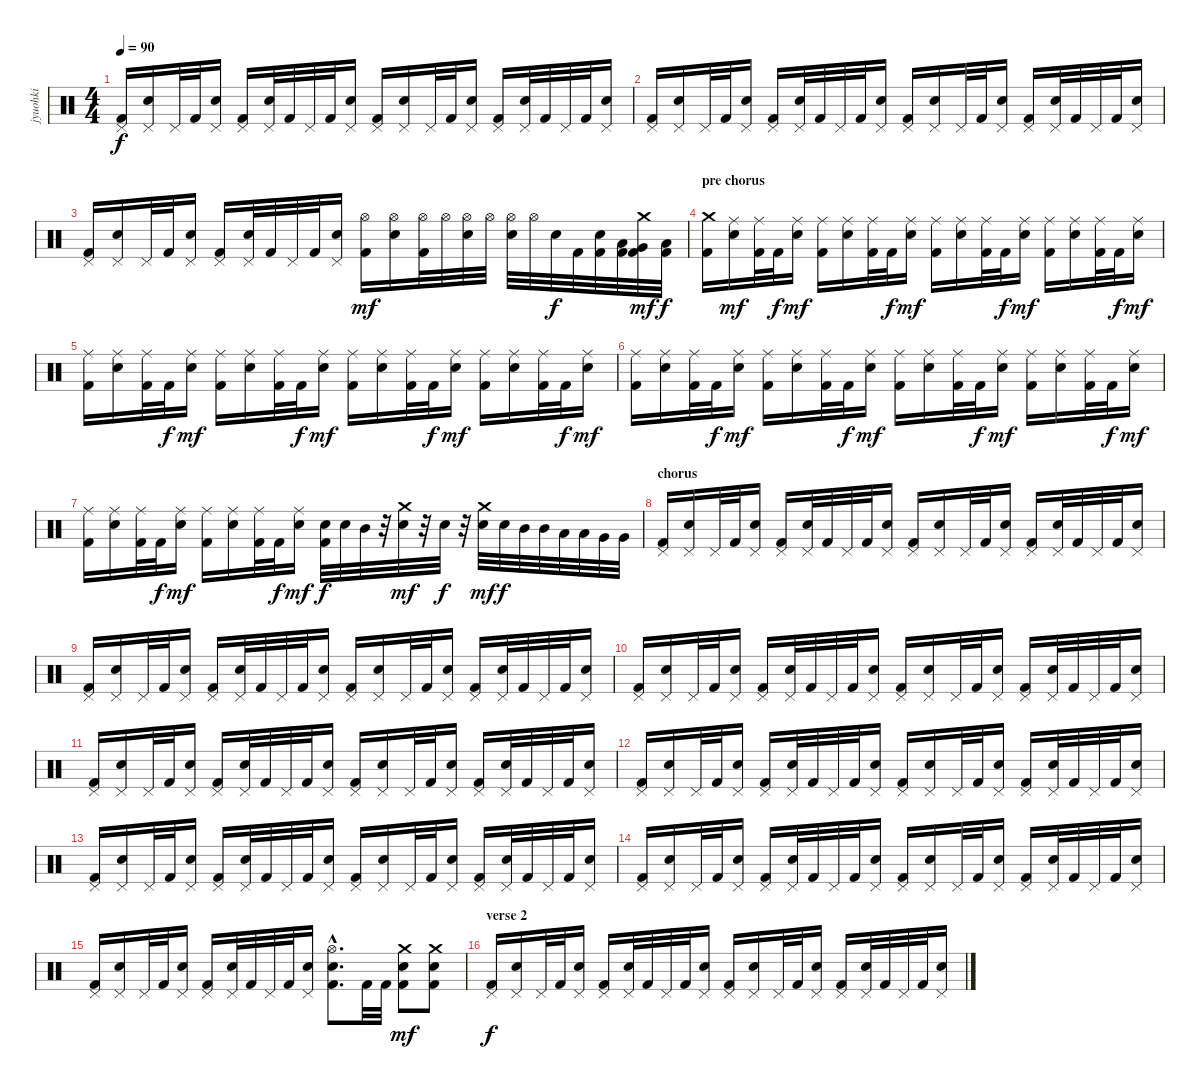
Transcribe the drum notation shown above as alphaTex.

\track ("jyuohki" "jyuohki") {instrument percussion}
\staff {score}
\articulation defaults
\ts (4 4)
\tempo 90
\clef neutral
\ks c
("Pedal Hi-Hat (hit)" "Kick (hit) 2").16{dy f} ("Pedal Hi-Hat (hit)" "Electric Snare (hit)").16 "Pedal Hi-Hat (hit)".32 "Kick (hit) 2".32 ("Pedal Hi-Hat (hit)" "Electric Snare (hit)").16 ("Pedal Hi-Hat (hit)" "Kick (hit) 2").16 ("Pedal Hi-Hat (hit)" "Electric Snare (hit)").32 "Kick (hit) 2".32 "Pedal Hi-Hat (hit)".32 "Kick (hit) 2".32 ("Pedal Hi-Hat (hit)" "Electric Snare (hit)").16 ("Pedal Hi-Hat (hit)" "Kick (hit) 2").16 ("Pedal Hi-Hat (hit)" "Electric Snare (hit)").16 "Pedal Hi-Hat (hit)".32 "Kick (hit) 2".32 ("Pedal Hi-Hat (hit)" "Electric Snare (hit)").16 ("Pedal Hi-Hat (hit)" "Kick (hit) 2").16 ("Pedal Hi-Hat (hit)" "Electric Snare (hit)").32 "Kick (hit) 2".32 "Pedal Hi-Hat (hit)".32 "Kick (hit) 2".32 ("Pedal Hi-Hat (hit)" "Electric Snare (hit)").16 |
("Pedal Hi-Hat (hit)" "Kick (hit) 2").16 ("Pedal Hi-Hat (hit)" "Electric Snare (hit)").16 "Pedal Hi-Hat (hit)".32 "Kick (hit) 2".32 ("Pedal Hi-Hat (hit)" "Electric Snare (hit)").16 ("Pedal Hi-Hat (hit)" "Kick (hit) 2").16 ("Pedal Hi-Hat (hit)" "Electric Snare (hit)").32 "Kick (hit) 2".32 "Pedal Hi-Hat (hit)".32 "Kick (hit) 2".32 ("Pedal Hi-Hat (hit)" "Electric Snare (hit)").16 ("Pedal Hi-Hat (hit)" "Kick (hit) 2").16 ("Pedal Hi-Hat (hit)" "Electric Snare (hit)").16 "Pedal Hi-Hat (hit)".32 "Kick (hit) 2".32 ("Pedal Hi-Hat (hit)" "Electric Snare (hit)").16 ("Pedal Hi-Hat (hit)" "Kick (hit) 2").16 ("Pedal Hi-Hat (hit)" "Electric Snare (hit)").32 "Kick (hit) 2".32 "Pedal Hi-Hat (hit)".32 "Kick (hit) 2".32 ("Pedal Hi-Hat (hit)" "Electric Snare (hit)").16 |
("Pedal Hi-Hat (hit)" "Kick (hit) 2").16 ("Pedal Hi-Hat (hit)" "Electric Snare (hit)").16 "Pedal Hi-Hat (hit)".32 "Kick (hit) 2".32 ("Pedal Hi-Hat (hit)" "Electric Snare (hit)").16 ("Pedal Hi-Hat (hit)" "Kick (hit) 2").16 ("Pedal Hi-Hat (hit)" "Electric Snare (hit)").32 "Kick (hit) 2".32 "Pedal Hi-Hat (hit)".32 "Kick (hit) 2".32 ("Pedal Hi-Hat (hit)" "Electric Snare (hit)").16 ("Hi-Hat (open)" "Kick (hit) 2").16{dy mf} ("Hi-Hat (open)" "Electric Snare (hit)").16 ("Hi-Hat (open)" "Kick (hit) 2").32 "Hi-Hat (open)".32 ("Hi-Hat (open)" "Electric Snare (hit)").32 "Hi-Hat (open)".32 ("Hi-Hat (open)" "Electric Snare (hit)").32 "Hi-Hat (open)".32 "Electric Snare (hit)".32{dy f} "Kick (hit) 2".32 ("Electric Snare (hit)" "Kick (hit) 2").32 ("Low Tom (hit)" "Kick (hit) 2").32 ("Crash medium (hit)" "Very Low Tom (hit)" "Kick (hit) 2").32{dy mf} ("Low Floor Tom (hit)" "Kick (hit) 2").32{dy f} |
\section ("" "pre chorus")
("Crash medium (hit)" "Kick (hit) 2").16 ("Ride (middle)" "Electric Snare (hit)").16{dy mf} ("Ride (middle)" "Kick (hit) 2").32 "Kick (hit) 2".32{dy f} ("Ride (middle)" "Electric Snare (hit)").16{dy mf} ("Ride (middle)" "Kick (hit) 2").16 ("Ride (middle)" "Electric Snare (hit)").16 ("Ride (middle)" "Kick (hit) 2").32 "Kick (hit) 2".32{dy f} ("Ride (middle)" "Electric Snare (hit)").16{dy mf} ("Ride (middle)" "Kick (hit) 2").16 ("Ride (middle)" "Electric Snare (hit)").16 ("Ride (middle)" "Kick (hit) 2").32 "Kick (hit) 2".32{dy f} ("Ride (middle)" "Electric Snare (hit)").16{dy mf} ("Ride (middle)" "Kick (hit) 2").16 ("Ride (middle)" "Electric Snare (hit)").16 ("Ride (middle)" "Kick (hit) 2").32 "Kick (hit) 2".32{dy f} ("Ride (middle)" "Electric Snare (hit)").16{dy mf} |
("Ride (middle)" "Kick (hit) 2").16 ("Ride (middle)" "Electric Snare (hit)").16 ("Ride (middle)" "Kick (hit) 2").32 "Kick (hit) 2".32{dy f} ("Ride (middle)" "Electric Snare (hit)").16{dy mf} ("Ride (middle)" "Kick (hit) 2").16 ("Ride (middle)" "Electric Snare (hit)").16 ("Ride (middle)" "Kick (hit) 2").32 "Kick (hit) 2".32{dy f} ("Ride (middle)" "Electric Snare (hit)").16{dy mf} ("Ride (middle)" "Kick (hit) 2").16 ("Ride (middle)" "Electric Snare (hit)").16 ("Ride (middle)" "Kick (hit) 2").32 "Kick (hit) 2".32{dy f} ("Ride (middle)" "Electric Snare (hit)").16{dy mf} ("Ride (middle)" "Kick (hit) 2").16 ("Ride (middle)" "Electric Snare (hit)").16 ("Ride (middle)" "Kick (hit) 2").32 "Kick (hit) 2".32{dy f} ("Ride (middle)" "Electric Snare (hit)").16{dy mf} |
("Ride (middle)" "Kick (hit) 2").16 ("Ride (middle)" "Electric Snare (hit)").16 ("Ride (middle)" "Kick (hit) 2").32 "Kick (hit) 2".32{dy f} ("Ride (middle)" "Electric Snare (hit)").16{dy mf} ("Ride (middle)" "Kick (hit) 2").16 ("Ride (middle)" "Electric Snare (hit)").16 ("Ride (middle)" "Kick (hit) 2").32 "Kick (hit) 2".32{dy f} ("Ride (middle)" "Electric Snare (hit)").16{dy mf} ("Ride (middle)" "Kick (hit) 2").16 ("Ride (middle)" "Electric Snare (hit)").16 ("Ride (middle)" "Kick (hit) 2").32 "Kick (hit) 2".32{dy f} ("Ride (middle)" "Electric Snare (hit)").16{dy mf} ("Ride (middle)" "Kick (hit) 2").16 ("Ride (middle)" "Electric Snare (hit)").16 ("Ride (middle)" "Kick (hit) 2").32 "Kick (hit) 2".32{dy f} ("Ride (middle)" "Electric Snare (hit)").16{dy mf} |
("Ride (middle)" "Kick (hit) 2").16 ("Ride (middle)" "Electric Snare (hit)").16 ("Ride (middle)" "Kick (hit) 2").32 "Kick (hit) 2".32{dy f} ("Ride (middle)" "Electric Snare (hit)").16{dy mf} ("Ride (middle)" "Kick (hit) 2").16 ("Ride (middle)" "Electric Snare (hit)").16 ("Ride (middle)" "Kick (hit) 2").32 "Kick (hit) 2".32{dy f} ("Ride (middle)" "Electric Snare (hit)").16{dy mf} ("Electric Snare (hit)" "Kick (hit) 2").32{dy f} "Electric Snare (hit)".32 "Mid Tom (hit)".32 r.32 ("Crash medium (hit)" "Electric Snare (hit)").32{dy mf} r.32 "Electric Snare (hit)".32{dy f} r.32 ("Crash medium (hit)" "Electric Snare (hit)").32{dy mf} "Electric Snare (hit)".32{dy f} "Mid Tom (hit)".32 "Mid Tom (hit)".32 "Low Tom (hit)".32 "Low Tom (hit)".32 "Very Low Tom (hit)".32 "Very Low Tom (hit)".32 |
\section ("" "chorus")
("Pedal Hi-Hat (hit)" "Kick (hit) 2").16 ("Pedal Hi-Hat (hit)" "Electric Snare (hit)").16 "Pedal Hi-Hat (hit)".32 "Kick (hit) 2".32 ("Pedal Hi-Hat (hit)" "Electric Snare (hit)").16 ("Pedal Hi-Hat (hit)" "Kick (hit) 2").16 ("Pedal Hi-Hat (hit)" "Electric Snare (hit)").32 "Kick (hit) 2".32 "Pedal Hi-Hat (hit)".32 "Kick (hit) 2".32 ("Pedal Hi-Hat (hit)" "Electric Snare (hit)").16 ("Pedal Hi-Hat (hit)" "Kick (hit) 2").16 ("Pedal Hi-Hat (hit)" "Electric Snare (hit)").16 "Pedal Hi-Hat (hit)".32 "Kick (hit) 2".32 ("Pedal Hi-Hat (hit)" "Electric Snare (hit)").16 ("Pedal Hi-Hat (hit)" "Kick (hit) 2").16 ("Pedal Hi-Hat (hit)" "Electric Snare (hit)").32 "Kick (hit) 2".32 "Pedal Hi-Hat (hit)".32 "Kick (hit) 2".32 ("Pedal Hi-Hat (hit)" "Electric Snare (hit)").16 |
("Pedal Hi-Hat (hit)" "Kick (hit) 2").16 ("Pedal Hi-Hat (hit)" "Electric Snare (hit)").16 "Pedal Hi-Hat (hit)".32 "Kick (hit) 2".32 ("Pedal Hi-Hat (hit)" "Electric Snare (hit)").16 ("Pedal Hi-Hat (hit)" "Kick (hit) 2").16 ("Pedal Hi-Hat (hit)" "Electric Snare (hit)").32 "Kick (hit) 2".32 "Pedal Hi-Hat (hit)".32 "Kick (hit) 2".32 ("Pedal Hi-Hat (hit)" "Electric Snare (hit)").16 ("Pedal Hi-Hat (hit)" "Kick (hit) 2").16 ("Pedal Hi-Hat (hit)" "Electric Snare (hit)").16 "Pedal Hi-Hat (hit)".32 "Kick (hit) 2".32 ("Pedal Hi-Hat (hit)" "Electric Snare (hit)").16 ("Pedal Hi-Hat (hit)" "Kick (hit) 2").16 ("Pedal Hi-Hat (hit)" "Electric Snare (hit)").32 "Kick (hit) 2".32 "Pedal Hi-Hat (hit)".32 "Kick (hit) 2".32 ("Pedal Hi-Hat (hit)" "Electric Snare (hit)").16 |
("Pedal Hi-Hat (hit)" "Kick (hit) 2").16 ("Pedal Hi-Hat (hit)" "Electric Snare (hit)").16 "Pedal Hi-Hat (hit)".32 "Kick (hit) 2".32 ("Pedal Hi-Hat (hit)" "Electric Snare (hit)").16 ("Pedal Hi-Hat (hit)" "Kick (hit) 2").16 ("Pedal Hi-Hat (hit)" "Electric Snare (hit)").32 "Kick (hit) 2".32 "Pedal Hi-Hat (hit)".32 "Kick (hit) 2".32 ("Pedal Hi-Hat (hit)" "Electric Snare (hit)").16 ("Pedal Hi-Hat (hit)" "Kick (hit) 2").16 ("Pedal Hi-Hat (hit)" "Electric Snare (hit)").16 "Pedal Hi-Hat (hit)".32 "Kick (hit) 2".32 ("Pedal Hi-Hat (hit)" "Electric Snare (hit)").16 ("Pedal Hi-Hat (hit)" "Kick (hit) 2").16 ("Pedal Hi-Hat (hit)" "Electric Snare (hit)").32 "Kick (hit) 2".32 "Pedal Hi-Hat (hit)".32 "Kick (hit) 2".32 ("Pedal Hi-Hat (hit)" "Electric Snare (hit)").16 |
("Pedal Hi-Hat (hit)" "Kick (hit) 2").16 ("Pedal Hi-Hat (hit)" "Electric Snare (hit)").16 "Pedal Hi-Hat (hit)".32 "Kick (hit) 2".32 ("Pedal Hi-Hat (hit)" "Electric Snare (hit)").16 ("Pedal Hi-Hat (hit)" "Kick (hit) 2").16 ("Pedal Hi-Hat (hit)" "Electric Snare (hit)").32 "Kick (hit) 2".32 "Pedal Hi-Hat (hit)".32 "Kick (hit) 2".32 ("Pedal Hi-Hat (hit)" "Electric Snare (hit)").16 ("Pedal Hi-Hat (hit)" "Kick (hit) 2").16 ("Pedal Hi-Hat (hit)" "Electric Snare (hit)").16 "Pedal Hi-Hat (hit)".32 "Kick (hit) 2".32 ("Pedal Hi-Hat (hit)" "Electric Snare (hit)").16 ("Pedal Hi-Hat (hit)" "Kick (hit) 2").16 ("Pedal Hi-Hat (hit)" "Electric Snare (hit)").32 "Kick (hit) 2".32 "Pedal Hi-Hat (hit)".32 "Kick (hit) 2".32 ("Pedal Hi-Hat (hit)" "Electric Snare (hit)").16 |
("Pedal Hi-Hat (hit)" "Kick (hit) 2").16 ("Pedal Hi-Hat (hit)" "Electric Snare (hit)").16 "Pedal Hi-Hat (hit)".32 "Kick (hit) 2".32 ("Pedal Hi-Hat (hit)" "Electric Snare (hit)").16 ("Pedal Hi-Hat (hit)" "Kick (hit) 2").16 ("Pedal Hi-Hat (hit)" "Electric Snare (hit)").32 "Kick (hit) 2".32 "Pedal Hi-Hat (hit)".32 "Kick (hit) 2".32 ("Pedal Hi-Hat (hit)" "Electric Snare (hit)").16 ("Pedal Hi-Hat (hit)" "Kick (hit) 2").16 ("Pedal Hi-Hat (hit)" "Electric Snare (hit)").16 "Pedal Hi-Hat (hit)".32 "Kick (hit) 2".32 ("Pedal Hi-Hat (hit)" "Electric Snare (hit)").16 ("Pedal Hi-Hat (hit)" "Kick (hit) 2").16 ("Pedal Hi-Hat (hit)" "Electric Snare (hit)").32 "Kick (hit) 2".32 "Pedal Hi-Hat (hit)".32 "Kick (hit) 2".32 ("Pedal Hi-Hat (hit)" "Electric Snare (hit)").16 |
("Pedal Hi-Hat (hit)" "Kick (hit) 2").16 ("Pedal Hi-Hat (hit)" "Electric Snare (hit)").16 "Pedal Hi-Hat (hit)".32 "Kick (hit) 2".32 ("Pedal Hi-Hat (hit)" "Electric Snare (hit)").16 ("Pedal Hi-Hat (hit)" "Kick (hit) 2").16 ("Pedal Hi-Hat (hit)" "Electric Snare (hit)").32 "Kick (hit) 2".32 "Pedal Hi-Hat (hit)".32 "Kick (hit) 2".32 ("Pedal Hi-Hat (hit)" "Electric Snare (hit)").16 ("Pedal Hi-Hat (hit)" "Kick (hit) 2").16 ("Pedal Hi-Hat (hit)" "Electric Snare (hit)").16 "Pedal Hi-Hat (hit)".32 "Kick (hit) 2".32 ("Pedal Hi-Hat (hit)" "Electric Snare (hit)").16 ("Pedal Hi-Hat (hit)" "Kick (hit) 2").16 ("Pedal Hi-Hat (hit)" "Electric Snare (hit)").32 "Kick (hit) 2".32 "Pedal Hi-Hat (hit)".32 "Kick (hit) 2".32 ("Pedal Hi-Hat (hit)" "Electric Snare (hit)").16 |
("Pedal Hi-Hat (hit)" "Kick (hit) 2").16 ("Pedal Hi-Hat (hit)" "Electric Snare (hit)").16 "Pedal Hi-Hat (hit)".32 "Kick (hit) 2".32 ("Pedal Hi-Hat (hit)" "Electric Snare (hit)").16 ("Pedal Hi-Hat (hit)" "Kick (hit) 2").16 ("Pedal Hi-Hat (hit)" "Electric Snare (hit)").32 "Kick (hit) 2".32 "Pedal Hi-Hat (hit)".32 "Kick (hit) 2".32 ("Pedal Hi-Hat (hit)" "Electric Snare (hit)").16 ("Pedal Hi-Hat (hit)" "Kick (hit) 2").16 ("Pedal Hi-Hat (hit)" "Electric Snare (hit)").16 "Pedal Hi-Hat (hit)".32 "Kick (hit) 2".32 ("Pedal Hi-Hat (hit)" "Electric Snare (hit)").16 ("Pedal Hi-Hat (hit)" "Kick (hit) 2").16 ("Pedal Hi-Hat (hit)" "Electric Snare (hit)").32 "Kick (hit) 2".32 "Pedal Hi-Hat (hit)".32 "Kick (hit) 2".32 ("Pedal Hi-Hat (hit)" "Electric Snare (hit)").16 |
("Pedal Hi-Hat (hit)" "Kick (hit) 2").16 ("Pedal Hi-Hat (hit)" "Electric Snare (hit)").16 "Pedal Hi-Hat (hit)".32 "Kick (hit) 2".32 ("Pedal Hi-Hat (hit)" "Electric Snare (hit)").16 ("Pedal Hi-Hat (hit)" "Kick (hit) 2").16 ("Pedal Hi-Hat (hit)" "Electric Snare (hit)").32 "Kick (hit) 2".32 "Pedal Hi-Hat (hit)".32 "Kick (hit) 2".32 ("Pedal Hi-Hat (hit)" "Electric Snare (hit)").16 ("Hi-Hat (open)"{hac} "Electric Snare (hit)"{hac} "Kick (hit) 2"{hac}).8{d} "Kick (hit) 2".32 "Kick (hit) 2".32 ("Crash medium (hit)" "Electric Snare (hit)" "Kick (hit) 2").8{dy mf} ("Crash medium (hit)" "Electric Snare (hit)" "Kick (hit) 2").8 |
\section ("" "verse 2")
("Pedal Hi-Hat (hit)" "Kick (hit) 2").16{dy f} ("Pedal Hi-Hat (hit)" "Electric Snare (hit)").16 "Pedal Hi-Hat (hit)".32 "Kick (hit) 2".32 ("Pedal Hi-Hat (hit)" "Electric Snare (hit)").16 ("Pedal Hi-Hat (hit)" "Kick (hit) 2").16 ("Pedal Hi-Hat (hit)" "Electric Snare (hit)").32 "Kick (hit) 2".32 "Pedal Hi-Hat (hit)".32 "Kick (hit) 2".32 ("Pedal Hi-Hat (hit)" "Electric Snare (hit)").16 ("Pedal Hi-Hat (hit)" "Kick (hit) 2").16 ("Pedal Hi-Hat (hit)" "Electric Snare (hit)").16 "Pedal Hi-Hat (hit)".32 "Kick (hit) 2".32 ("Pedal Hi-Hat (hit)" "Electric Snare (hit)").16 ("Pedal Hi-Hat (hit)" "Kick (hit) 2").16 ("Pedal Hi-Hat (hit)" "Electric Snare (hit)").32 "Kick (hit) 2".32 "Pedal Hi-Hat (hit)".32 "Kick (hit) 2".32 ("Pedal Hi-Hat (hit)" "Electric Snare (hit)").16
